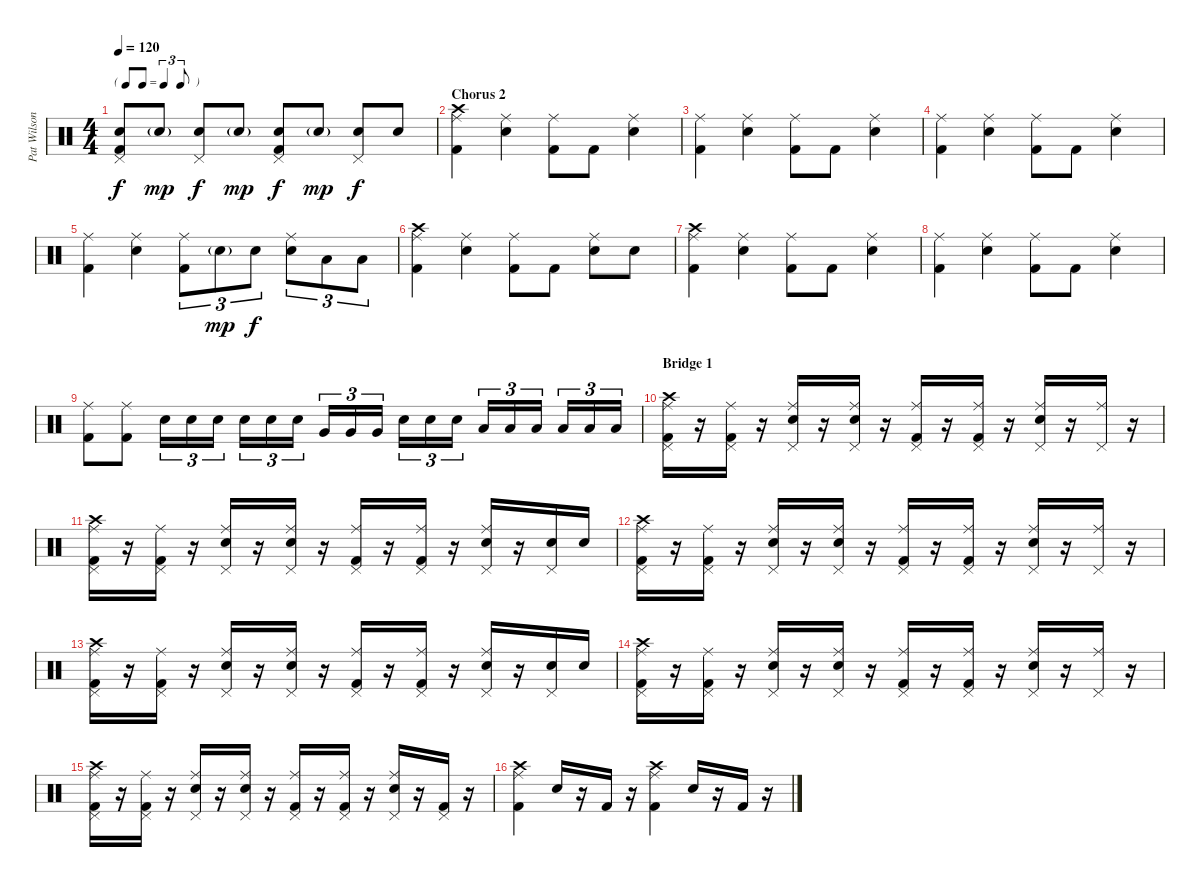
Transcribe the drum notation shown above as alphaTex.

\track ("Pat Wilson - Drums" "Pat Wilson") {instrument percussion}
\staff {score}
\articulation defaults
\ts (4 4)
\tf triplet8th
\tempo 120
\clef neutral
\ks c
("Pedal Hi-Hat (hit)" "Kick (hit) 2" "Electric Snare (hit)").8{dy f} "Electric Snare (hit)"{g}.8{dy mp} ("Pedal Hi-Hat (hit)" "Electric Snare (hit)").8{dy f} "Electric Snare (hit)"{g}.8{dy mp} ("Pedal Hi-Hat (hit)" "Kick (hit) 2" "Electric Snare (hit)").8{dy f} "Electric Snare (hit)"{g}.8{dy mp} ("Pedal Hi-Hat (hit)" "Electric Snare (hit)").8{dy f} "Electric Snare (hit)".8 |
\section ("" "Chorus 2")
("Ride (middle)" "Kick (hit) 2" "Crash high (hit)").4 ("Ride (middle)" "Electric Snare (hit)").4 ("Ride (middle)" "Kick (hit) 2").8 "Kick (hit) 2".8 ("Ride (middle)" "Electric Snare (hit)").4 |
("Ride (middle)" "Kick (hit) 2").4 ("Ride (middle)" "Electric Snare (hit)").4 ("Ride (middle)" "Kick (hit) 2").8 "Kick (hit) 2".8 ("Ride (middle)" "Electric Snare (hit)").4 |
("Ride (middle)" "Kick (hit) 2").4 ("Ride (middle)" "Electric Snare (hit)").4 ("Ride (middle)" "Kick (hit) 2").8 "Kick (hit) 2".8 ("Ride (middle)" "Electric Snare (hit)").4 |
("Ride (middle)" "Kick (hit) 2").4 ("Ride (middle)" "Electric Snare (hit)").4 ("Ride (middle)" "Kick (hit) 2").8{tu (3 2)} "Electric Snare (hit)"{g}.8{tu (3 2) dy mp} "Electric Snare (hit)".8{tu (3 2) dy f} ("Ride (middle)" "Electric Snare (hit)").8{tu (3 2)} "Low Tom (hit)".8{tu (3 2)} "Low Tom (hit)".8{tu (3 2)} |
("Ride (middle)" "Kick (hit) 2" "Crash high (hit)").4 ("Ride (middle)" "Electric Snare (hit)").4 ("Ride (middle)" "Kick (hit) 2").8 "Kick (hit) 2".8 ("Ride (middle)" "Electric Snare (hit)").8 "Electric Snare (hit)".8 |
("Ride (middle)" "Kick (hit) 2" "Crash high (hit)").4 ("Ride (middle)" "Electric Snare (hit)").4 ("Ride (middle)" "Kick (hit) 2").8 "Kick (hit) 2".8 ("Ride (middle)" "Electric Snare (hit)").4 |
("Ride (middle)" "Kick (hit) 2").4 ("Ride (middle)" "Electric Snare (hit)").4 ("Ride (middle)" "Kick (hit) 2").8 "Kick (hit) 2".8 ("Ride (middle)" "Electric Snare (hit)").4 |
("Ride (middle)" "Kick (hit) 2").8 ("Ride (middle)" "Kick (hit) 2").8 "Electric Snare (hit)".16{tu (3 2)} "Electric Snare (hit)".16{tu (3 2)} "Electric Snare (hit)".16{tu (3 2)} "Electric Snare (hit)".16{tu (3 2)} "Electric Snare (hit)".16{tu (3 2)} "Electric Snare (hit)".16{tu (3 2)} "Very Low Tom (hit)".16{tu (3 2)} "Very Low Tom (hit)".16{tu (3 2)} "Very Low Tom (hit)".16{tu (3 2)} "Electric Snare (hit)".16{tu (3 2)} "Electric Snare (hit)".16{tu (3 2)} "Electric Snare (hit)".16{tu (3 2)} "Low Tom (hit)".16{tu (3 2)} "Low Tom (hit)".16{tu (3 2)} "Low Tom (hit)".16{tu (3 2)} "Low Tom (hit)".16{tu (3 2)} "Low Tom (hit)".16{tu (3 2)} "Low Tom (hit)".16{tu (3 2)} |
\section ("" "Bridge 1")
("Ride (middle)" "Kick (hit) 2" "Crash high (hit)" "Pedal Hi-Hat (hit)").16 r.16 ("Ride (middle)" "Kick (hit) 2" "Pedal Hi-Hat (hit)").16 r.16 ("Ride (middle)" "Electric Snare (hit)" "Pedal Hi-Hat (hit)").16 r.16 ("Ride (middle)" "Electric Snare (hit)" "Pedal Hi-Hat (hit)").16 r.16 ("Ride (middle)" "Kick (hit) 2" "Pedal Hi-Hat (hit)").16 r.16 ("Ride (middle)" "Kick (hit) 2" "Pedal Hi-Hat (hit)").16 r.16 ("Ride (middle)" "Electric Snare (hit)" "Pedal Hi-Hat (hit)").16 r.16 ("Ride (middle)" "Pedal Hi-Hat (hit)").16 r.16 |
("Ride (middle)" "Kick (hit) 2" "Crash high (hit)" "Pedal Hi-Hat (hit)").16 r.16 ("Ride (middle)" "Kick (hit) 2" "Pedal Hi-Hat (hit)").16 r.16 ("Ride (middle)" "Electric Snare (hit)" "Pedal Hi-Hat (hit)").16 r.16 ("Ride (middle)" "Electric Snare (hit)" "Pedal Hi-Hat (hit)").16 r.16 ("Ride (middle)" "Kick (hit) 2" "Pedal Hi-Hat (hit)").16 r.16 ("Ride (middle)" "Kick (hit) 2" "Pedal Hi-Hat (hit)").16 r.16 ("Ride (middle)" "Electric Snare (hit)" "Pedal Hi-Hat (hit)").16 r.16 ("Electric Snare (hit)" "Pedal Hi-Hat (hit)").16 "Electric Snare (hit)".16 |
("Ride (middle)" "Kick (hit) 2" "Crash high (hit)" "Pedal Hi-Hat (hit)").16 r.16 ("Ride (middle)" "Kick (hit) 2" "Pedal Hi-Hat (hit)").16 r.16 ("Ride (middle)" "Electric Snare (hit)" "Pedal Hi-Hat (hit)").16 r.16 ("Ride (middle)" "Electric Snare (hit)" "Pedal Hi-Hat (hit)").16 r.16 ("Ride (middle)" "Kick (hit) 2" "Pedal Hi-Hat (hit)").16 r.16 ("Ride (middle)" "Kick (hit) 2" "Pedal Hi-Hat (hit)").16 r.16 ("Ride (middle)" "Electric Snare (hit)" "Pedal Hi-Hat (hit)").16 r.16 ("Ride (middle)" "Pedal Hi-Hat (hit)").16 r.16 |
("Ride (middle)" "Kick (hit) 2" "Crash high (hit)" "Pedal Hi-Hat (hit)").16 r.16 ("Ride (middle)" "Kick (hit) 2" "Pedal Hi-Hat (hit)").16 r.16 ("Ride (middle)" "Electric Snare (hit)" "Pedal Hi-Hat (hit)").16 r.16 ("Ride (middle)" "Electric Snare (hit)" "Pedal Hi-Hat (hit)").16 r.16 ("Ride (middle)" "Kick (hit) 2" "Pedal Hi-Hat (hit)").16 r.16 ("Ride (middle)" "Kick (hit) 2" "Pedal Hi-Hat (hit)").16 r.16 ("Ride (middle)" "Electric Snare (hit)" "Pedal Hi-Hat (hit)").16 r.16 ("Electric Snare (hit)" "Pedal Hi-Hat (hit)").16 "Electric Snare (hit)".16 |
("Ride (middle)" "Kick (hit) 2" "Crash high (hit)" "Pedal Hi-Hat (hit)").16 r.16 ("Ride (middle)" "Kick (hit) 2" "Pedal Hi-Hat (hit)").16 r.16 ("Ride (middle)" "Electric Snare (hit)" "Pedal Hi-Hat (hit)").16 r.16 ("Ride (middle)" "Electric Snare (hit)" "Pedal Hi-Hat (hit)").16 r.16 ("Ride (middle)" "Kick (hit) 2" "Pedal Hi-Hat (hit)").16 r.16 ("Ride (middle)" "Kick (hit) 2" "Pedal Hi-Hat (hit)").16 r.16 ("Ride (middle)" "Electric Snare (hit)" "Pedal Hi-Hat (hit)").16 r.16 ("Ride (middle)" "Pedal Hi-Hat (hit)").16 r.16 |
("Ride (middle)" "Kick (hit) 2" "Crash high (hit)" "Pedal Hi-Hat (hit)").16 r.16 ("Ride (middle)" "Kick (hit) 2" "Pedal Hi-Hat (hit)").16 r.16 ("Ride (middle)" "Electric Snare (hit)" "Pedal Hi-Hat (hit)").16 r.16 ("Ride (middle)" "Electric Snare (hit)" "Pedal Hi-Hat (hit)").16 r.16 ("Ride (middle)" "Kick (hit) 2" "Pedal Hi-Hat (hit)").16 r.16 ("Ride (middle)" "Kick (hit) 2" "Pedal Hi-Hat (hit)").16 r.16 ("Ride (middle)" "Electric Snare (hit)" "Pedal Hi-Hat (hit)").16 r.16 ("Kick (hit) 2" "Pedal Hi-Hat (hit)").16 r.16 |
("Ride (middle)" "Kick (hit) 2" "Crash high (hit)").4 "Electric Snare (hit)".16 r.16 "Kick (hit) 2".16 r.16 ("Ride (middle)" "Kick (hit) 2" "Crash high (hit)").4 "Electric Snare (hit)".16 r.16 "Kick (hit) 2".16 r.16
